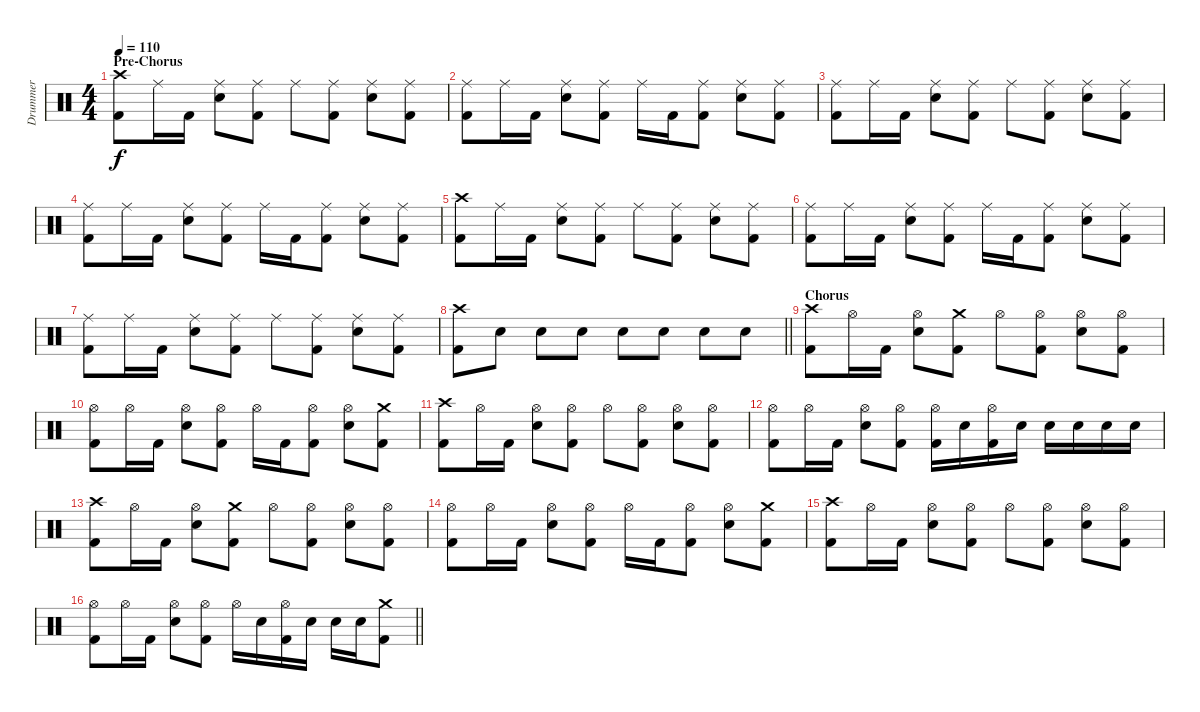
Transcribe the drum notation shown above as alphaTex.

\track ("Drummer" "Drummer") {instrument percussion}
\staff {score}
\articulation defaults
\ts (4 4)
\section ("" "Pre-Chorus")
\tempo 110
\clef neutral
\ks c
("Crash high (hit)" "Kick (hit) 2").8{dy f} "Ride (middle)".16 "Kick (hit) 2".16 ("Ride (middle)" "Electric Snare (hit)").8 ("Ride (middle)" "Kick (hit) 2").8 "Ride (middle)".8 ("Ride (middle)" "Kick (hit) 2").8 ("Ride (middle)" "Electric Snare (hit)").8 ("Ride (middle)" "Kick (hit) 2").8 |
("Ride (middle)" "Kick (hit) 2").8 "Ride (middle)".16 "Kick (hit) 2".16 ("Ride (middle)" "Electric Snare (hit)").8 ("Ride (middle)" "Kick (hit) 2").8 "Ride (middle)".16 "Kick (hit) 2".16 ("Ride (middle)" "Kick (hit) 2").8 ("Ride (middle)" "Electric Snare (hit)").8 ("Ride (middle)" "Kick (hit) 2").8 |
("Ride (middle)" "Kick (hit) 2").8 "Ride (middle)".16 "Kick (hit) 2".16 ("Ride (middle)" "Electric Snare (hit)").8 ("Ride (middle)" "Kick (hit) 2").8 "Ride (middle)".8 ("Ride (middle)" "Kick (hit) 2").8 ("Ride (middle)" "Electric Snare (hit)").8 ("Ride (middle)" "Kick (hit) 2").8 |
("Ride (middle)" "Kick (hit) 2").8 "Ride (middle)".16 "Kick (hit) 2".16 ("Ride (middle)" "Electric Snare (hit)").8 ("Ride (middle)" "Kick (hit) 2").8 "Ride (middle)".16 "Kick (hit) 2".16 ("Ride (middle)" "Kick (hit) 2").8 ("Ride (middle)" "Electric Snare (hit)").8 ("Ride (middle)" "Kick (hit) 2").8 |
("Crash high (hit)" "Kick (hit) 2").8 "Ride (middle)".16 "Kick (hit) 2".16 ("Ride (middle)" "Electric Snare (hit)").8 ("Ride (middle)" "Kick (hit) 2").8 "Ride (middle)".8 ("Ride (middle)" "Kick (hit) 2").8 ("Ride (middle)" "Electric Snare (hit)").8 ("Ride (middle)" "Kick (hit) 2").8 |
("Ride (middle)" "Kick (hit) 2").8 "Ride (middle)".16 "Kick (hit) 2".16 ("Ride (middle)" "Electric Snare (hit)").8 ("Ride (middle)" "Kick (hit) 2").8 "Ride (middle)".16 "Kick (hit) 2".16 ("Ride (middle)" "Kick (hit) 2").8 ("Ride (middle)" "Electric Snare (hit)").8 ("Ride (middle)" "Kick (hit) 2").8 |
("Ride (middle)" "Kick (hit) 2").8 "Ride (middle)".16 "Kick (hit) 2".16 ("Ride (middle)" "Electric Snare (hit)").8 ("Ride (middle)" "Kick (hit) 2").8 "Ride (middle)".8 ("Ride (middle)" "Kick (hit) 2").8 ("Ride (middle)" "Electric Snare (hit)").8 ("Ride (middle)" "Kick (hit) 2").8 |
\barLineRight lightlight
("Crash high (hit)" "Kick (hit) 2").8 "Electric Snare (hit)".8 "Electric Snare (hit)".8 "Electric Snare (hit)".8 "Electric Snare (hit)".8 "Electric Snare (hit)".8 "Electric Snare (hit)".8 "Electric Snare (hit)".8 |
\section ("" "Chorus")
("Crash high (hit)" "Kick (hit) 2").8 "Hi-Hat (open)".16 "Kick (hit) 2".16 ("Hi-Hat (open)" "Electric Snare (hit)").8 ("Crash medium (hit)" "Kick (hit) 2").8 "Hi-Hat (open)".8 ("Hi-Hat (open)" "Kick (hit) 2").8 ("Hi-Hat (open)" "Electric Snare (hit)").8 ("Hi-Hat (open)" "Kick (hit) 2").8 |
("Hi-Hat (open)" "Kick (hit) 2").8 "Hi-Hat (open)".16 "Kick (hit) 2".16 ("Hi-Hat (open)" "Electric Snare (hit)").8 ("Hi-Hat (open)" "Kick (hit) 2").8 "Hi-Hat (open)".16 "Kick (hit) 2".16 ("Hi-Hat (open)" "Kick (hit) 2").8 ("Hi-Hat (open)" "Electric Snare (hit)").8 ("Crash medium (hit)" "Kick (hit) 2").8 |
("Crash high (hit)" "Kick (hit) 2").8 "Hi-Hat (open)".16 "Kick (hit) 2".16 ("Hi-Hat (open)" "Electric Snare (hit)").8 ("Hi-Hat (open)" "Kick (hit) 2").8 "Hi-Hat (open)".8 ("Hi-Hat (open)" "Kick (hit) 2").8 ("Hi-Hat (open)" "Electric Snare (hit)").8 ("Hi-Hat (open)" "Kick (hit) 2").8 |
("Hi-Hat (open)" "Kick (hit) 2").8 "Hi-Hat (open)".16 "Kick (hit) 2".16 ("Hi-Hat (open)" "Electric Snare (hit)").8 ("Hi-Hat (open)" "Kick (hit) 2").8 ("Hi-Hat (open)" "Kick (hit) 2").16 "Electric Snare (hit)".16 ("Hi-Hat (open)" "Kick (hit) 2").16 "Electric Snare (hit)".16 "Electric Snare (hit)".16 "Electric Snare (hit)".16 "Electric Snare (hit)".16 "Electric Snare (hit)".16 |
("Crash high (hit)" "Kick (hit) 2").8 "Hi-Hat (open)".16 "Kick (hit) 2".16 ("Hi-Hat (open)" "Electric Snare (hit)").8 ("Crash medium (hit)" "Kick (hit) 2").8 "Hi-Hat (open)".8 ("Hi-Hat (open)" "Kick (hit) 2").8 ("Hi-Hat (open)" "Electric Snare (hit)").8 ("Hi-Hat (open)" "Kick (hit) 2").8 |
("Hi-Hat (open)" "Kick (hit) 2").8 "Hi-Hat (open)".16 "Kick (hit) 2".16 ("Hi-Hat (open)" "Electric Snare (hit)").8 ("Hi-Hat (open)" "Kick (hit) 2").8 "Hi-Hat (open)".16 "Kick (hit) 2".16 ("Hi-Hat (open)" "Kick (hit) 2").8 ("Hi-Hat (open)" "Electric Snare (hit)").8 ("Crash medium (hit)" "Kick (hit) 2").8 |
("Crash high (hit)" "Kick (hit) 2").8 "Hi-Hat (open)".16 "Kick (hit) 2".16 ("Hi-Hat (open)" "Electric Snare (hit)").8 ("Hi-Hat (open)" "Kick (hit) 2").8 "Hi-Hat (open)".8 ("Hi-Hat (open)" "Kick (hit) 2").8 ("Hi-Hat (open)" "Electric Snare (hit)").8 ("Hi-Hat (open)" "Kick (hit) 2").8 |
\barLineRight lightlight
("Hi-Hat (open)" "Kick (hit) 2").8 "Hi-Hat (open)".16 "Kick (hit) 2".16 ("Hi-Hat (open)" "Electric Snare (hit)").8 ("Hi-Hat (open)" "Kick (hit) 2").8 "Hi-Hat (open)".16 "Electric Snare (hit)".16 ("Hi-Hat (open)" "Kick (hit) 2").16 "Electric Snare (hit)".16 "Electric Snare (hit)".16 "Electric Snare (hit)".16 ("Crash medium (hit)" "Kick (hit) 2").8
